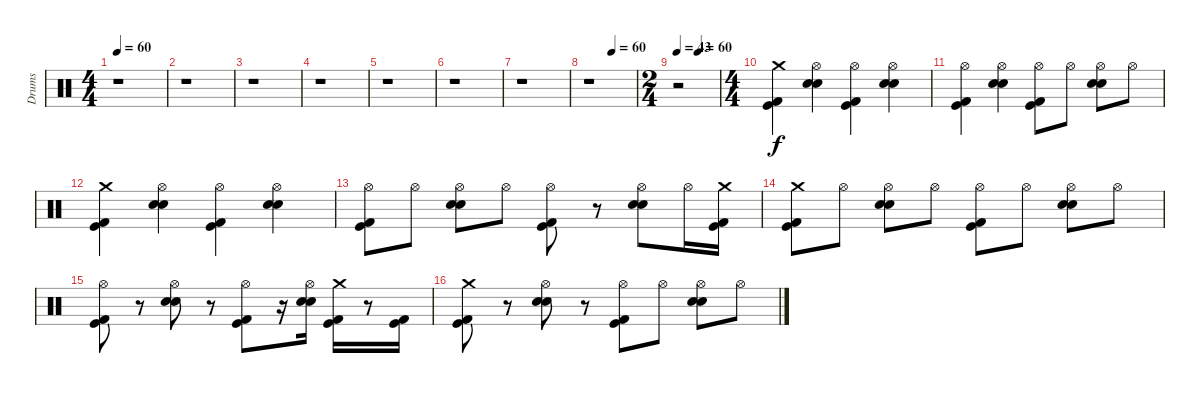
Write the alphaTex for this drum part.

\track ("Drums" "Drums") {instrument percussion}
\staff {score}
\articulation defaults
\ts (4 4)
\tempo 60
\clef neutral
\ks c
r.1{dy f} |
r.1 |
r.1 |
r.1 |
r.1 |
r.1 |
r.1 |
\tempo (60 0.5)
r.1 |
\ts (2 4)
\tempo 43
\tempo (60 0.5)
r.2 |
\ts (4 4)
("Crash medium (hit)" "Kick (hit) 2" "Kick (hit)").4 ("Hi-Hat (open)" "Electric Snare (hit)" "Snare (hit) 2").4 ("Hi-Hat (open)" "Kick (hit) 2" "Kick (hit)").4 ("Hi-Hat (open)" "Snare (hit) 2" "Electric Snare (hit)").4 |
("Hi-Hat (open)" "Kick (hit) 2" "Kick (hit)").4 ("Hi-Hat (open)" "Electric Snare (hit)" "Snare (hit) 2").4 ("Hi-Hat (open)" "Kick (hit) 2" "Kick (hit)").8 "Hi-Hat (open)".8 ("Hi-Hat (open)" "Electric Snare (hit)" "Snare (hit) 2").8 "Hi-Hat (open)".8 |
("Crash medium (hit)" "Kick (hit) 2" "Kick (hit)").4 ("Hi-Hat (open)" "Electric Snare (hit)" "Snare (hit) 2").4 ("Hi-Hat (open)" "Kick (hit)" "Kick (hit) 2").4 ("Hi-Hat (open)" "Electric Snare (hit)" "Snare (hit) 2").4 |
("Hi-Hat (open)" "Kick (hit) 2" "Kick (hit)").8 "Hi-Hat (open)".8 ("Electric Snare (hit)" "Snare (hit) 2" "Hi-Hat (open)").8 "Hi-Hat (open)".8 ("Hi-Hat (open)" "Kick (hit) 2" "Kick (hit)").8 r.8 ("Hi-Hat (open)" "Electric Snare (hit)" "Snare (hit) 2").8 "Hi-Hat (open)".16 ("Kick (hit) 2" "Kick (hit)" "Crash medium (hit)").16 |
("Kick (hit) 2" "Crash medium (hit)" "Kick (hit)").8 "Hi-Hat (open)".8 ("Electric Snare (hit)" "Snare (hit) 2" "Hi-Hat (open)").8 "Hi-Hat (open)".8 ("Kick (hit) 2" "Kick (hit)" "Hi-Hat (open)").8 "Hi-Hat (open)".8 ("Snare (hit) 2" "Electric Snare (hit)" "Hi-Hat (open)").8 "Hi-Hat (open)".8 |
("Hi-Hat (open)" "Kick (hit) 2" "Kick (hit)").8 r.8 ("Hi-Hat (open)" "Electric Snare (hit)" "Snare (hit) 2").8 r.8 ("Kick (hit) 2" "Hi-Hat (open)" "Kick (hit)").8 r.16 ("Hi-Hat (open)" "Electric Snare (hit)" "Snare (hit) 2").16 ("Kick (hit) 2" "Kick (hit)" "Crash medium (hit)").16 r.8 ("Kick (hit)" "Kick (hit) 2").16 |
("Crash medium (hit)" "Kick (hit) 2" "Kick (hit)").8 r.8 ("Electric Snare (hit)" "Snare (hit) 2" "Hi-Hat (open)").8 r.8 ("Hi-Hat (open)" "Kick (hit) 2" "Kick (hit)").8 "Hi-Hat (open)".8 ("Snare (hit) 2" "Electric Snare (hit)" "Hi-Hat (open)").8 "Hi-Hat (open)".8
